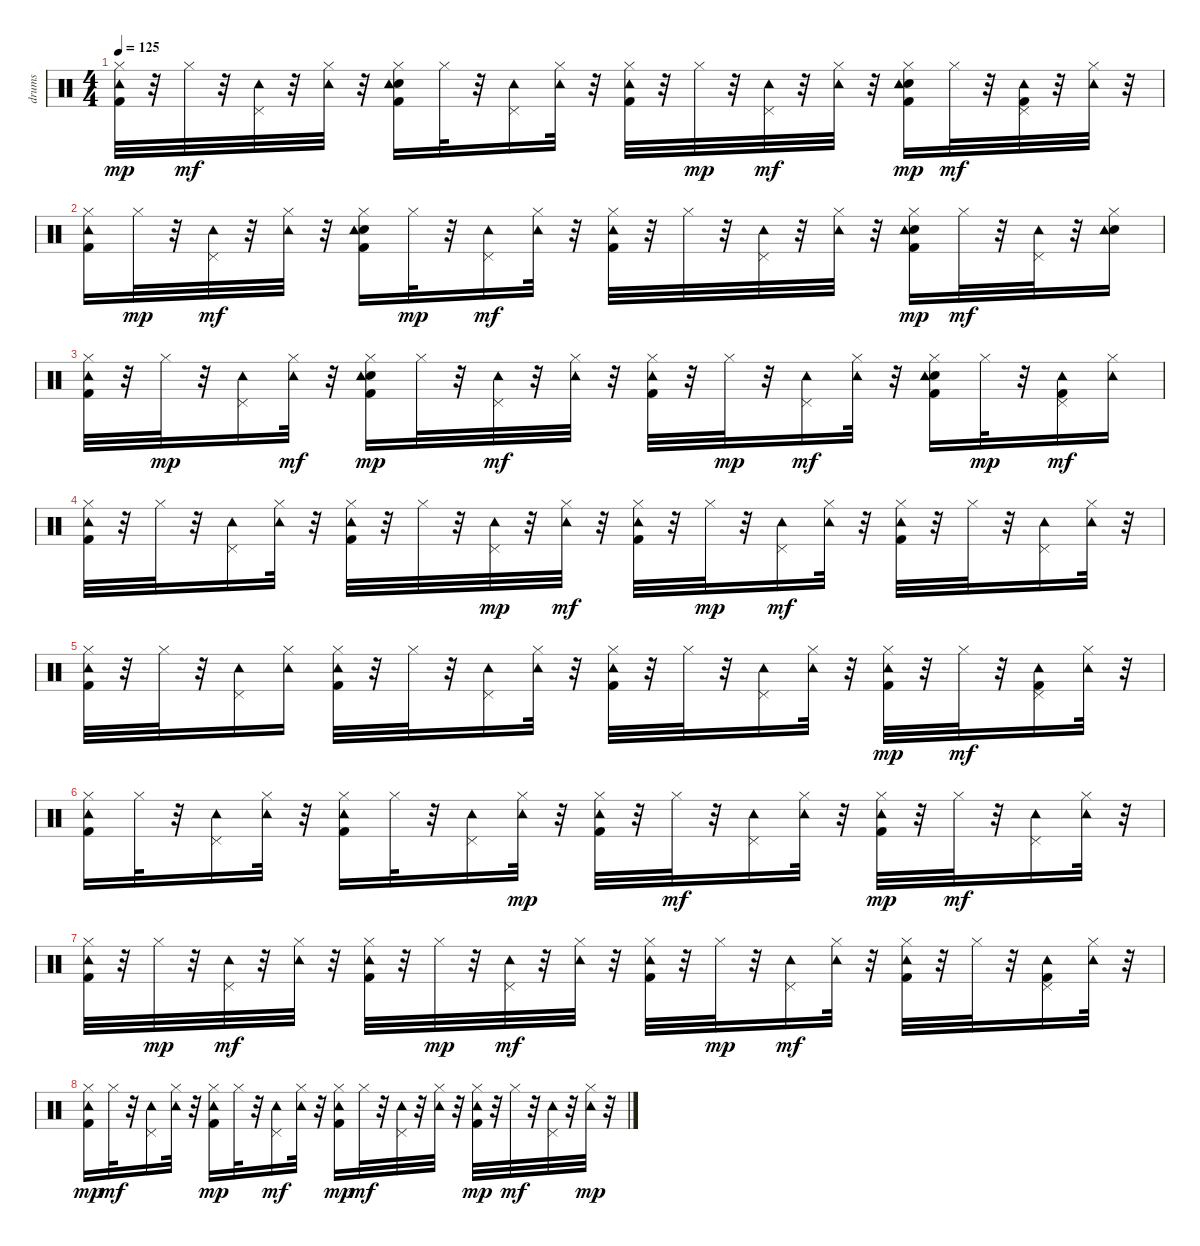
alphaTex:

\track ("drums   " "drums   ") {instrument percussion}
\staff {score}
\articulation defaults
\ts (4 4)
\tempo 125
\clef neutral
\ks c
("Kick (hit) 2" "Hi-Hat (closed)" "Tambourine (hit)").32{dy mp} r.32 "Hi-Hat (closed)".32{dy mf} r.32 ("Pedal Hi-Hat (hit)" "Tambourine (hit)").32 r.32 ("Hi-Hat (closed)" "Tambourine (hit)").32 r.32 ("Kick (hit) 2" "Snare (hit) 2" "Hi-Hat (closed)" "Tambourine (hit)").16 "Hi-Hat (closed)".32 r.32 ("Pedal Hi-Hat (hit)" "Tambourine (hit)").16 ("Hi-Hat (closed)" "Tambourine (hit)").32 r.32 ("Kick (hit) 2" "Hi-Hat (closed)" "Tambourine (hit)").32 r.32 "Hi-Hat (closed)".32{dy mp} r.32 ("Pedal Hi-Hat (hit)" "Tambourine (hit)").32{dy mf} r.32 ("Hi-Hat (closed)" "Tambourine (hit)").32 r.32 ("Kick (hit) 2" "Snare (hit) 2" "Hi-Hat (closed)" "Tambourine (hit)").16{dy mp} "Hi-Hat (closed)".32{dy mf} r.32 ("Kick (hit) 2" "Pedal Hi-Hat (hit)" "Tambourine (hit)").32 r.32 ("Hi-Hat (closed)" "Tambourine (hit)").32 r.32 |
("Kick (hit) 2" "Hi-Hat (closed)" "Tambourine (hit)").16 "Hi-Hat (closed)".32{dy mp} r.32 ("Pedal Hi-Hat (hit)" "Tambourine (hit)").32{dy mf} r.32 ("Hi-Hat (closed)" "Tambourine (hit)").32 r.32 ("Kick (hit) 2" "Snare (hit) 2" "Hi-Hat (closed)" "Tambourine (hit)").16 "Hi-Hat (closed)".32{dy mp} r.32 ("Pedal Hi-Hat (hit)" "Tambourine (hit)").16{dy mf} ("Hi-Hat (closed)" "Tambourine (hit)").32 r.32 ("Kick (hit) 2" "Hi-Hat (closed)" "Tambourine (hit)").32 r.32 "Hi-Hat (closed)".32 r.32 ("Pedal Hi-Hat (hit)" "Tambourine (hit)").32 r.32 ("Hi-Hat (closed)" "Tambourine (hit)").32 r.32 ("Kick (hit) 2" "Snare (hit) 2" "Hi-Hat (closed)" "Tambourine (hit)").16{dy mp} "Hi-Hat (closed)".32{dy mf} r.32 ("Pedal Hi-Hat (hit)" "Tambourine (hit)").32 r.32 ("Snare (hit) 2" "Hi-Hat (closed)" "Tambourine (hit)").16 |
("Kick (hit) 2" "Hi-Hat (closed)" "Tambourine (hit)").32 r.32 "Hi-Hat (closed)".32{dy mp} r.32 ("Pedal Hi-Hat (hit)" "Tambourine (hit)").16 ("Hi-Hat (closed)" "Tambourine (hit)").32{dy mf} r.32 ("Kick (hit) 2" "Snare (hit) 2" "Hi-Hat (closed)" "Tambourine (hit)").16{dy mp} "Hi-Hat (closed)".32 r.32 ("Pedal Hi-Hat (hit)" "Tambourine (hit)").32{dy mf} r.32 ("Hi-Hat (closed)" "Tambourine (hit)").32 r.32 ("Kick (hit) 2" "Hi-Hat (closed)" "Tambourine (hit)").32 r.32 "Hi-Hat (closed)".32{dy mp} r.32 ("Pedal Hi-Hat (hit)" "Tambourine (hit)").16{dy mf} ("Hi-Hat (closed)" "Tambourine (hit)").32 r.32 ("Kick (hit) 2" "Snare (hit) 2" "Hi-Hat (closed)" "Tambourine (hit)").16 "Hi-Hat (closed)".32{dy mp} r.32 ("Kick (hit) 2" "Pedal Hi-Hat (hit)" "Tambourine (hit)").16{dy mf} ("Hi-Hat (closed)" "Tambourine (hit)").16 |
("Kick (hit) 2" "Hi-Hat (closed)" "Tambourine (hit)").32 r.32 "Hi-Hat (closed)".32 r.32 ("Pedal Hi-Hat (hit)" "Tambourine (hit)").16 ("Hi-Hat (closed)" "Tambourine (hit)").32 r.32 ("Kick (hit) 2" "Hi-Hat (closed)" "Tambourine (hit)").32 r.32 "Hi-Hat (closed)".32 r.32 ("Pedal Hi-Hat (hit)" "Tambourine (hit)").32{dy mp} r.32 ("Hi-Hat (closed)" "Tambourine (hit)").32{dy mf} r.32 ("Kick (hit) 2" "Hi-Hat (closed)" "Tambourine (hit)").32 r.32 "Hi-Hat (closed)".32{dy mp} r.32 ("Pedal Hi-Hat (hit)" "Tambourine (hit)").16{dy mf} ("Hi-Hat (closed)" "Tambourine (hit)").32 r.32 ("Kick (hit) 2" "Hi-Hat (closed)" "Tambourine (hit)").32 r.32 "Hi-Hat (closed)".32 r.32 ("Pedal Hi-Hat (hit)" "Tambourine (hit)").16 ("Hi-Hat (closed)" "Tambourine (hit)").32 r.32 |
("Kick (hit) 2" "Hi-Hat (closed)" "Tambourine (hit)").32 r.32 "Hi-Hat (closed)".32 r.32 ("Pedal Hi-Hat (hit)" "Tambourine (hit)").16 ("Hi-Hat (closed)" "Tambourine (hit)").16 ("Kick (hit) 2" "Hi-Hat (closed)" "Tambourine (hit)").32 r.32 "Hi-Hat (closed)".32 r.32 ("Pedal Hi-Hat (hit)" "Tambourine (hit)").16 ("Hi-Hat (closed)" "Tambourine (hit)").32 r.32 ("Kick (hit) 2" "Hi-Hat (closed)" "Tambourine (hit)").32 r.32 "Hi-Hat (closed)".32 r.32 ("Pedal Hi-Hat (hit)" "Tambourine (hit)").16 ("Hi-Hat (closed)" "Tambourine (hit)").32 r.32 ("Kick (hit) 2" "Hi-Hat (closed)" "Tambourine (hit)").32{dy mp} r.32 "Hi-Hat (closed)".32{dy mf} r.32 ("Kick (hit) 2" "Pedal Hi-Hat (hit)" "Tambourine (hit)").16 ("Hi-Hat (closed)" "Tambourine (hit)").32 r.32 |
("Kick (hit) 2" "Hi-Hat (closed)" "Tambourine (hit)").16 "Hi-Hat (closed)".32 r.32 ("Pedal Hi-Hat (hit)" "Tambourine (hit)").16 ("Hi-Hat (closed)" "Tambourine (hit)").32 r.32 ("Kick (hit) 2" "Hi-Hat (closed)" "Tambourine (hit)").16 "Hi-Hat (closed)".32 r.32 ("Pedal Hi-Hat (hit)" "Tambourine (hit)").16 ("Hi-Hat (closed)" "Tambourine (hit)").32{dy mp} r.32 ("Kick (hit) 2" "Hi-Hat (closed)" "Tambourine (hit)").32 r.32 "Hi-Hat (closed)".32{dy mf} r.32 ("Pedal Hi-Hat (hit)" "Tambourine (hit)").16 ("Hi-Hat (closed)" "Tambourine (hit)").32 r.32 ("Kick (hit) 2" "Hi-Hat (closed)" "Tambourine (hit)").32{dy mp} r.32 "Hi-Hat (closed)".32{dy mf} r.32 ("Pedal Hi-Hat (hit)" "Tambourine (hit)").16 ("Hi-Hat (closed)" "Tambourine (hit)").32 r.32 |
("Kick (hit) 2" "Hi-Hat (closed)" "Tambourine (hit)").32 r.32 "Hi-Hat (closed)".32{dy mp} r.32 ("Pedal Hi-Hat (hit)" "Tambourine (hit)").32{dy mf} r.32 ("Hi-Hat (closed)" "Tambourine (hit)").32 r.32 ("Kick (hit) 2" "Hi-Hat (closed)" "Tambourine (hit)").32 r.32 "Hi-Hat (closed)".32{dy mp} r.32 ("Pedal Hi-Hat (hit)" "Tambourine (hit)").32{dy mf} r.32 ("Hi-Hat (closed)" "Tambourine (hit)").32 r.32 ("Kick (hit) 2" "Hi-Hat (closed)" "Tambourine (hit)").32 r.32 "Hi-Hat (closed)".32{dy mp} r.32 ("Pedal Hi-Hat (hit)" "Tambourine (hit)").16{dy mf} ("Hi-Hat (closed)" "Tambourine (hit)").32 r.32 ("Kick (hit) 2" "Hi-Hat (closed)" "Tambourine (hit)").32 r.32 "Hi-Hat (closed)".32 r.32 ("Kick (hit) 2" "Pedal Hi-Hat (hit)" "Tambourine (hit)").16 ("Hi-Hat (closed)" "Tambourine (hit)").32 r.32 |
("Kick (hit) 2" "Hi-Hat (closed)" "Tambourine (hit)").16{dy mp} "Hi-Hat (closed)".32{dy mf} r.32 ("Pedal Hi-Hat (hit)" "Tambourine (hit)").16 ("Hi-Hat (closed)" "Tambourine (hit)").32 r.32 ("Kick (hit) 2" "Hi-Hat (closed)" "Tambourine (hit)").16{dy mp} "Hi-Hat (closed)".32 r.32 ("Pedal Hi-Hat (hit)" "Tambourine (hit)").16{dy mf} ("Hi-Hat (closed)" "Tambourine (hit)").32 r.32 ("Kick (hit) 2" "Hi-Hat (closed)" "Tambourine (hit)").16{dy mp} "Hi-Hat (closed)".32{dy mf} r.32 ("Pedal Hi-Hat (hit)" "Tambourine (hit)").32 r.32 ("Hi-Hat (closed)" "Tambourine (hit)").32 r.32 ("Kick (hit) 2" "Hi-Hat (closed)" "Tambourine (hit)").32{dy mp} r.32 "Hi-Hat (closed)".32{dy mf} r.32 ("Pedal Hi-Hat (hit)" "Tambourine (hit)").32 r.32 ("Hi-Hat (closed)" "Tambourine (hit)").32{dy mp} r.32
